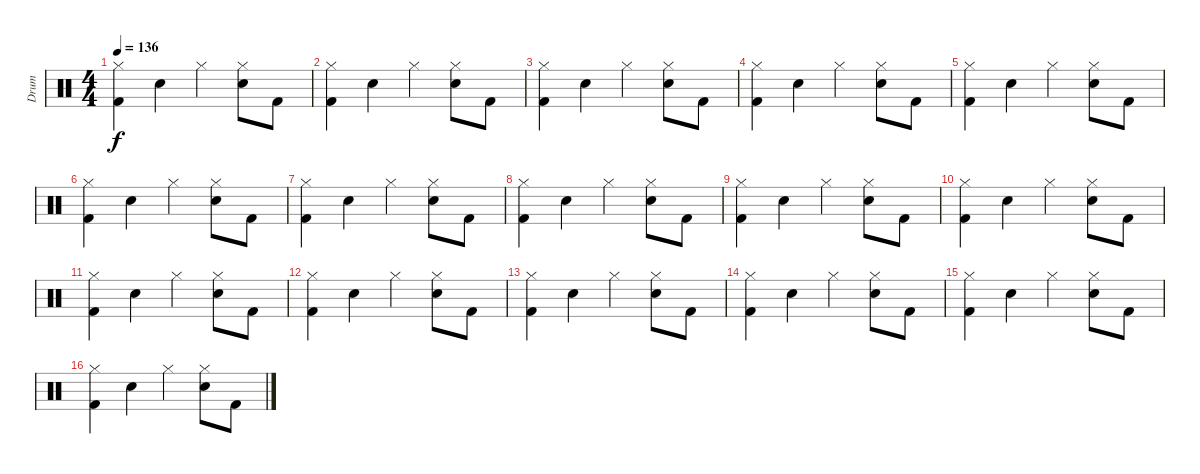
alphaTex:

\track ("Drum" "Drum") {instrument percussion}
\staff {score}
\articulation defaults
\ts (4 4)
\tempo 136
\clef neutral
\ks c
("Hi-Hat (closed)" "Kick (hit) 2").4{dy f} "Snare (hit) 2".4 "Hi-Hat (closed)".4 ("Hi-Hat (closed)" "Snare (hit) 2").8 "Kick (hit) 2".8 |
("Hi-Hat (closed)" "Kick (hit) 2").4 "Snare (hit) 2".4 "Hi-Hat (closed)".4 ("Hi-Hat (closed)" "Snare (hit) 2").8 "Kick (hit) 2".8 |
("Hi-Hat (closed)" "Kick (hit) 2").4 "Snare (hit) 2".4 "Hi-Hat (closed)".4 ("Hi-Hat (closed)" "Snare (hit) 2").8 "Kick (hit) 2".8 |
("Hi-Hat (closed)" "Kick (hit) 2").4 "Snare (hit) 2".4 "Hi-Hat (closed)".4 ("Hi-Hat (closed)" "Snare (hit) 2").8 "Kick (hit) 2".8 |
("Hi-Hat (closed)" "Kick (hit) 2").4 "Snare (hit) 2".4 "Hi-Hat (closed)".4 ("Hi-Hat (closed)" "Snare (hit) 2").8 "Kick (hit) 2".8 |
("Hi-Hat (closed)" "Kick (hit) 2").4 "Snare (hit) 2".4 "Hi-Hat (closed)".4 ("Hi-Hat (closed)" "Snare (hit) 2").8 "Kick (hit) 2".8 |
("Hi-Hat (closed)" "Kick (hit) 2").4 "Snare (hit) 2".4 "Hi-Hat (closed)".4 ("Hi-Hat (closed)" "Snare (hit) 2").8 "Kick (hit) 2".8 |
("Hi-Hat (closed)" "Kick (hit) 2").4 "Snare (hit) 2".4 "Hi-Hat (closed)".4 ("Hi-Hat (closed)" "Snare (hit) 2").8 "Kick (hit) 2".8 |
("Hi-Hat (closed)" "Kick (hit) 2").4 "Snare (hit) 2".4 "Hi-Hat (closed)".4 ("Hi-Hat (closed)" "Snare (hit) 2").8 "Kick (hit) 2".8 |
("Hi-Hat (closed)" "Kick (hit) 2").4 "Snare (hit) 2".4 "Hi-Hat (closed)".4 ("Hi-Hat (closed)" "Snare (hit) 2").8 "Kick (hit) 2".8 |
("Hi-Hat (closed)" "Kick (hit) 2").4 "Snare (hit) 2".4 "Hi-Hat (closed)".4 ("Hi-Hat (closed)" "Snare (hit) 2").8 "Kick (hit) 2".8 |
("Hi-Hat (closed)" "Kick (hit) 2").4 "Snare (hit) 2".4 "Hi-Hat (closed)".4 ("Hi-Hat (closed)" "Snare (hit) 2").8 "Kick (hit) 2".8 |
("Hi-Hat (closed)" "Kick (hit) 2").4 "Snare (hit) 2".4 "Hi-Hat (closed)".4 ("Hi-Hat (closed)" "Snare (hit) 2").8 "Kick (hit) 2".8 |
("Hi-Hat (closed)" "Kick (hit) 2").4 "Snare (hit) 2".4 "Hi-Hat (closed)".4 ("Hi-Hat (closed)" "Snare (hit) 2").8 "Kick (hit) 2".8 |
("Hi-Hat (closed)" "Kick (hit) 2").4 "Snare (hit) 2".4 "Hi-Hat (closed)".4 ("Hi-Hat (closed)" "Snare (hit) 2").8 "Kick (hit) 2".8 |
("Hi-Hat (closed)" "Kick (hit) 2").4 "Snare (hit) 2".4 "Hi-Hat (closed)".4 ("Hi-Hat (closed)" "Snare (hit) 2").8 "Kick (hit) 2".8
